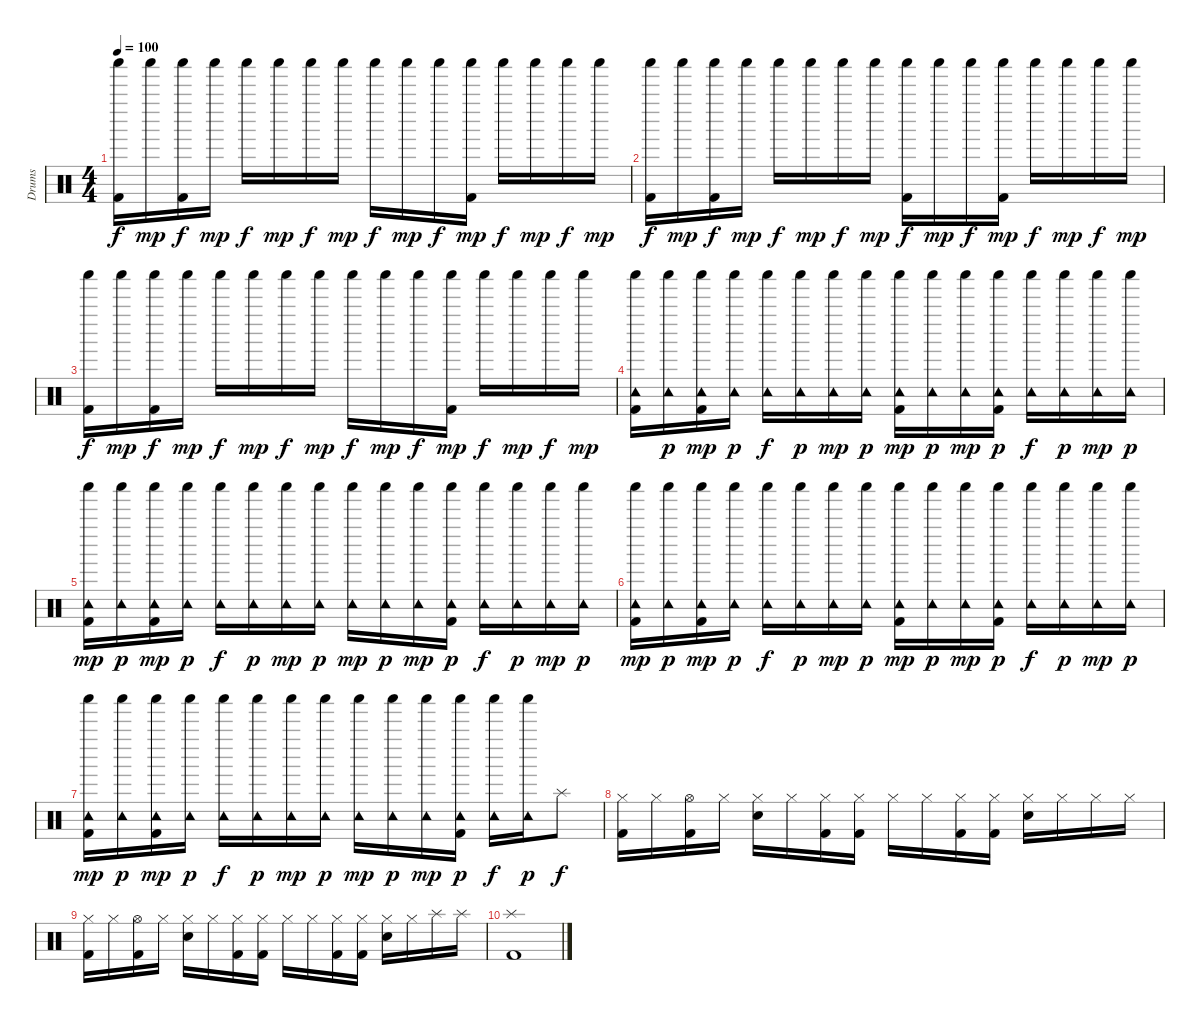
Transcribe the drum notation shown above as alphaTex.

\track ("Drums" "Drums") {instrument percussion}
\staff {score}
\articulation defaults
\ts (4 4)
\tempo 100
\clef neutral
\ks c
("Shaker (hit)" "Kick (hit) 2").16{dy f} "Shaker (hit)".16{dy mp} ("Shaker (hit)" "Kick (hit) 2").16{dy f} "Shaker (hit)".16{dy mp} "Shaker (hit)".16{dy f} "Shaker (hit)".16{dy mp} "Shaker (hit)".16{dy f} "Shaker (hit)".16{dy mp} "Shaker (hit)".16{dy f} "Shaker (hit)".16{dy mp} "Shaker (hit)".16{dy f} ("Shaker (hit)" "Kick (hit) 2").16{dy mp} "Shaker (hit)".16{dy f} "Shaker (hit)".16{dy mp} "Shaker (hit)".16{dy f} "Shaker (hit)".16{dy mp} |
("Shaker (hit)" "Kick (hit) 2").16{dy f} "Shaker (hit)".16{dy mp} ("Shaker (hit)" "Kick (hit) 2").16{dy f} "Shaker (hit)".16{dy mp} "Shaker (hit)".16{dy f} "Shaker (hit)".16{dy mp} "Shaker (hit)".16{dy f} "Shaker (hit)".16{dy mp} ("Shaker (hit)" "Kick (hit) 2").16{dy f} "Shaker (hit)".16{dy mp} "Shaker (hit)".16{dy f} ("Shaker (hit)" "Kick (hit) 2").16{dy mp} "Shaker (hit)".16{dy f} "Shaker (hit)".16{dy mp} "Shaker (hit)".16{dy f} "Shaker (hit)".16{dy mp} |
("Shaker (hit)" "Kick (hit) 2").16{dy f} "Shaker (hit)".16{dy mp} ("Shaker (hit)" "Kick (hit) 2").16{dy f} "Shaker (hit)".16{dy mp} "Shaker (hit)".16{dy f} "Shaker (hit)".16{dy mp} "Shaker (hit)".16{dy f} "Shaker (hit)".16{dy mp} "Shaker (hit)".16{dy f} "Shaker (hit)".16{dy mp} "Shaker (hit)".16{dy f} ("Shaker (hit)" "Kick (hit) 2").16{dy mp} "Shaker (hit)".16{dy f} "Shaker (hit)".16{dy mp} "Shaker (hit)".16{dy f} "Shaker (hit)".16{dy mp} |
("Shaker (hit)" "Tambourine (hit)" "Kick (hit) 2").16 ("Shaker (hit)" "Tambourine (hit)").16{dy p} ("Shaker (hit)" "Tambourine (hit)" "Kick (hit) 2").16{dy mp} ("Shaker (hit)" "Tambourine (hit)").16{dy p} ("Shaker (hit)" "Tambourine (hit)").16{dy f} ("Shaker (hit)" "Tambourine (hit)").16{dy p} ("Shaker (hit)" "Tambourine (hit)").16{dy mp} ("Shaker (hit)" "Tambourine (hit)").16{dy p} ("Shaker (hit)" "Tambourine (hit)" "Kick (hit) 2").16{dy mp} ("Shaker (hit)" "Tambourine (hit)").16{dy p} ("Shaker (hit)" "Tambourine (hit)").16{dy mp} ("Shaker (hit)" "Tambourine (hit)" "Kick (hit) 2").16{dy p} ("Shaker (hit)" "Tambourine (hit)").16{dy f} ("Shaker (hit)" "Tambourine (hit)").16{dy p} ("Shaker (hit)" "Tambourine (hit)").16{dy mp} ("Shaker (hit)" "Tambourine (hit)").16{dy p} |
("Shaker (hit)" "Tambourine (hit)" "Kick (hit) 2").16{dy mp} ("Shaker (hit)" "Tambourine (hit)").16{dy p} ("Shaker (hit)" "Tambourine (hit)" "Kick (hit) 2").16{dy mp} ("Shaker (hit)" "Tambourine (hit)").16{dy p} ("Shaker (hit)" "Tambourine (hit)").16{dy f} ("Shaker (hit)" "Tambourine (hit)").16{dy p} ("Shaker (hit)" "Tambourine (hit)").16{dy mp} ("Shaker (hit)" "Tambourine (hit)").16{dy p} ("Shaker (hit)" "Tambourine (hit)").16{dy mp} ("Shaker (hit)" "Tambourine (hit)").16{dy p} ("Shaker (hit)" "Tambourine (hit)").16{dy mp} ("Shaker (hit)" "Tambourine (hit)" "Kick (hit) 2").16{dy p} ("Shaker (hit)" "Tambourine (hit)").16{dy f} ("Shaker (hit)" "Tambourine (hit)").16{dy p} ("Shaker (hit)" "Tambourine (hit)").16{dy mp} ("Shaker (hit)" "Tambourine (hit)").16{dy p} |
("Shaker (hit)" "Tambourine (hit)" "Kick (hit) 2").16{dy mp} ("Shaker (hit)" "Tambourine (hit)").16{dy p} ("Shaker (hit)" "Tambourine (hit)" "Kick (hit) 2").16{dy mp} ("Shaker (hit)" "Tambourine (hit)").16{dy p} ("Shaker (hit)" "Tambourine (hit)").16{dy f} ("Shaker (hit)" "Tambourine (hit)").16{dy p} ("Shaker (hit)" "Tambourine (hit)").16{dy mp} ("Shaker (hit)" "Tambourine (hit)").16{dy p} ("Shaker (hit)" "Tambourine (hit)" "Kick (hit) 2").16{dy mp} ("Shaker (hit)" "Tambourine (hit)").16{dy p} ("Shaker (hit)" "Tambourine (hit)").16{dy mp} ("Shaker (hit)" "Tambourine (hit)" "Kick (hit) 2").16{dy p} ("Shaker (hit)" "Tambourine (hit)").16{dy f} ("Shaker (hit)" "Tambourine (hit)").16{dy p} ("Shaker (hit)" "Tambourine (hit)").16{dy mp} ("Shaker (hit)" "Tambourine (hit)").16{dy p} |
("Shaker (hit)" "Tambourine (hit)" "Kick (hit) 2").16{dy mp} ("Shaker (hit)" "Tambourine (hit)").16{dy p} ("Shaker (hit)" "Tambourine (hit)" "Kick (hit) 2").16{dy mp} ("Shaker (hit)" "Tambourine (hit)").16{dy p} ("Shaker (hit)" "Tambourine (hit)").16{dy f} ("Shaker (hit)" "Tambourine (hit)").16{dy p} ("Shaker (hit)" "Tambourine (hit)").16{dy mp} ("Shaker (hit)" "Tambourine (hit)").16{dy p} ("Shaker (hit)" "Tambourine (hit)").16{dy mp} ("Shaker (hit)" "Tambourine (hit)").16{dy p} ("Shaker (hit)" "Tambourine (hit)").16{dy mp} ("Shaker (hit)" "Tambourine (hit)" "Kick (hit) 2").16{dy p} ("Shaker (hit)" "Tambourine (hit)").16{dy f} ("Shaker (hit)" "Tambourine (hit)").16{dy p} "Splash (hit)".8{dy f} |
("Hi-Hat (closed)" "Kick (hit) 2").16 "Hi-Hat (closed)".16 ("Hi-Hat (open)" "Kick (hit) 2").16 "Hi-Hat (closed)".16 ("Hi-Hat (closed)" "Snare (hit) 2").16 "Hi-Hat (closed)".16 ("Hi-Hat (closed)" "Kick (hit) 2").16 ("Hi-Hat (closed)" "Kick (hit) 2").16 "Hi-Hat (closed)".16 "Hi-Hat (closed)".16 ("Hi-Hat (closed)" "Kick (hit) 2").16 ("Hi-Hat (closed)" "Kick (hit) 2").16 ("Hi-Hat (closed)" "Snare (hit) 2").16 "Hi-Hat (closed)".16 "Hi-Hat (closed)".16 "Hi-Hat (closed)".16 |
("Hi-Hat (closed)" "Kick (hit) 2").16 "Hi-Hat (closed)".16 ("Hi-Hat (open)" "Kick (hit) 2").16 "Hi-Hat (closed)".16 ("Hi-Hat (closed)" "Snare (hit) 2").16 "Hi-Hat (closed)".16 ("Hi-Hat (closed)" "Kick (hit) 2").16 ("Hi-Hat (closed)" "Kick (hit) 2").16 "Hi-Hat (closed)".16 "Hi-Hat (closed)".16 ("Hi-Hat (closed)" "Kick (hit) 2").16 ("Hi-Hat (closed)" "Kick (hit) 2").16 ("Hi-Hat (closed)" "Snare (hit) 2").16 "Hi-Hat (closed)".16 "Splash (hit)".16 "Splash (hit)".16 |
("Splash (hit)" "Kick (hit) 2").1
